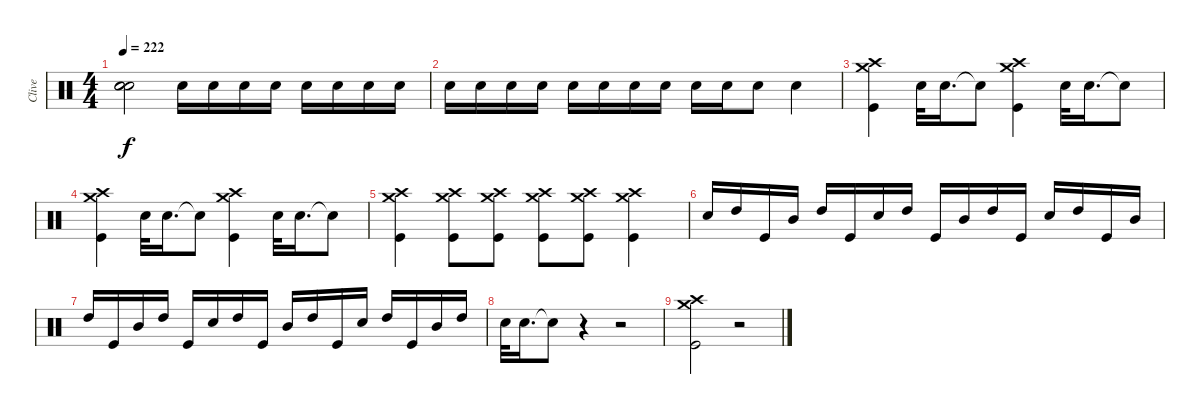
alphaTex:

\track ("Clive" "Clive") {instrument percussion}
\staff {score}
\articulation defaults
\ts (4 4)
\tempo 222
\clef neutral
\ks c
("Snare (hit)"{t} "Snare (hit)"{t} "Snare (hit)"{t}).2{dy f} "Snare (hit) 2".16 "Snare (hit) 2".16 "Snare (hit) 2".16 "Snare (hit) 2".16 "Snare (hit) 2".16 "Snare (hit) 2".16 "Snare (hit) 2".16 "Snare (hit) 2".16 |
"Snare (hit) 2".16 "Snare (hit) 2".16 "Snare (hit) 2".16 "Snare (hit) 2".16 "Snare (hit) 2".16 "Snare (hit) 2".16 "Snare (hit) 2".16 "Snare (hit) 2".16 "Snare (hit) 2".16 "Snare (hit) 2".16 "Snare (hit) 2".8 "Snare (hit) 2".4 |
("Crash medium (hit)" "Crash high (hit)" "Kick (hit)").4 "Snare (hit) 2".32 "Snare (hit) 2".16{d} "Snare (hit)"{t}.8 ("Crash medium (hit)" "Crash high (hit)" "Kick (hit)").4 "Snare (hit) 2".32 "Snare (hit) 2".16{d} "Snare (hit)"{t}.8 |
("Crash medium (hit)" "Crash high (hit)" "Kick (hit)").4 "Snare (hit) 2".32 "Snare (hit) 2".16{d} "Snare (hit)"{t}.8 ("Crash medium (hit)" "Crash high (hit)" "Kick (hit)").4 "Snare (hit) 2".32 "Snare (hit) 2".16{d} "Snare (hit)"{t}.8 |
("Crash high (hit)" "Crash medium (hit)" "Kick (hit)").4 ("Crash high (hit)" "Crash medium (hit)" "Kick (hit)").8 ("Crash medium (hit)" "Crash high (hit)" "Kick (hit)").8 ("Crash medium (hit)" "Crash high (hit)" "Kick (hit)").8 ("Crash high (hit)" "Crash medium (hit)" "Kick (hit)").8 ("Crash medium (hit)" "Crash high (hit)" "Kick (hit)").4 |
"Snare (hit) 2".16 "High Tom (hit)".16 "Kick (hit)".16 "Mid Tom (hit)".16 "High Tom (hit)".16 "Kick (hit)".16 "Snare (hit) 2".16 "High Tom (hit)".16 "Kick (hit)".16 "Mid Tom (hit)".16 "High Tom (hit)".16 "Kick (hit)".16 "Snare (hit) 2".16 "High Tom (hit)".16 "Kick (hit)".16 "Mid Tom (hit)".16 |
"High Tom (hit)".16 "Kick (hit)".16 "Mid Tom (hit)".16 "High Tom (hit)".16 "Kick (hit)".16 "Snare (hit) 2".16 "High Tom (hit)".16 "Kick (hit)".16 "Mid Tom (hit)".16 "High Tom (hit)".16 "Kick (hit)".16 "Snare (hit) 2".16 "High Tom (hit)".16 "Kick (hit)".16 "Mid Tom (hit)".16 "High Tom (hit)".16 |
"Snare (hit) 2".32 "Snare (hit) 2".16{d} "Snare (hit)"{t}.8 r.4 r.2 |
("Crash medium (hit)" "Crash high (hit)" "Kick (hit)").2 r.2
